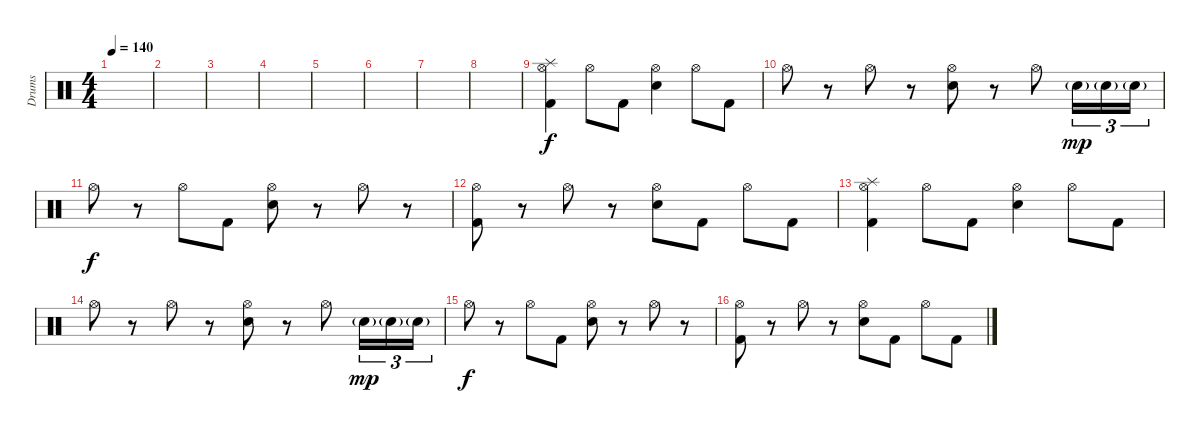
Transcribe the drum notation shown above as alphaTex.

\track ("Drums" "Drums") {instrument percussion}
\staff {score}
\articulation defaults
\ts (4 4)
\tempo 140
\clef neutral
\ks c
|
|
|
|
|
|
|
|
("Hi-Hat (open)" "Splash (hit)" "Kick (hit) 2").4 "Hi-Hat (open)".8 "Kick (hit) 2".8 ("Hi-Hat (open)" "Electric Snare (hit)").4 "Hi-Hat (open)".8 "Kick (hit) 2".8 |
"Hi-Hat (open)".8 r.8 "Hi-Hat (open)".8 r.8 ("Hi-Hat (open)" "Electric Snare (hit)").8 r.8 "Hi-Hat (open)".8 "Electric Snare (hit)"{g}.16{tu (3 2) dy mp} "Electric Snare (hit)"{g}.16{tu (3 2)} "Electric Snare (hit)"{g}.16{tu (3 2)} |
"Hi-Hat (open)".8{dy f} r.8 "Hi-Hat (open)".8 "Kick (hit) 2".8 ("Hi-Hat (open)" "Electric Snare (hit)").8 r.8 "Hi-Hat (open)".8 r.8 |
("Hi-Hat (open)" "Kick (hit) 2").8 r.8 "Hi-Hat (open)".8 r.8 ("Hi-Hat (open)" "Electric Snare (hit)").8 "Kick (hit) 2".8 "Hi-Hat (open)".8 "Kick (hit) 2".8 |
("Hi-Hat (open)" "Splash (hit)" "Kick (hit) 2").4 "Hi-Hat (open)".8 "Kick (hit) 2".8 ("Hi-Hat (open)" "Electric Snare (hit)").4 "Hi-Hat (open)".8 "Kick (hit) 2".8 |
"Hi-Hat (open)".8 r.8 "Hi-Hat (open)".8 r.8 ("Hi-Hat (open)" "Electric Snare (hit)").8 r.8 "Hi-Hat (open)".8 "Electric Snare (hit)"{g}.16{tu (3 2) dy mp} "Electric Snare (hit)"{g}.16{tu (3 2)} "Electric Snare (hit)"{g}.16{tu (3 2)} |
"Hi-Hat (open)".8{dy f} r.8 "Hi-Hat (open)".8 "Kick (hit) 2".8 ("Hi-Hat (open)" "Electric Snare (hit)").8 r.8 "Hi-Hat (open)".8 r.8 |
("Hi-Hat (open)" "Kick (hit) 2").8 r.8 "Hi-Hat (open)".8 r.8 ("Hi-Hat (open)" "Electric Snare (hit)").8 "Kick (hit) 2".8 "Hi-Hat (open)".8 "Kick (hit) 2".8
